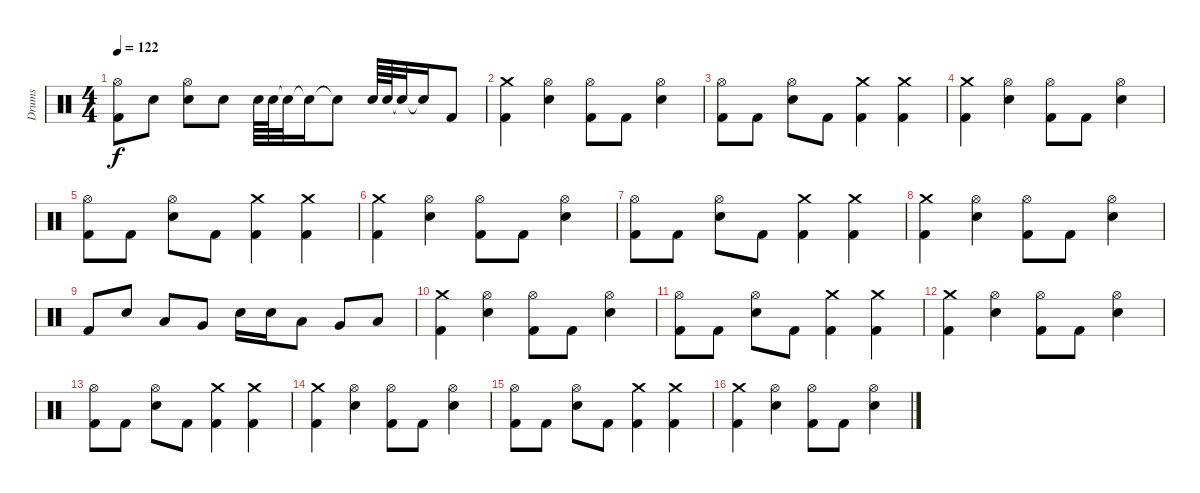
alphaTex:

\track ("Drums" "Drums") {instrument percussion}
\staff {score}
\articulation defaults
\ts (4 4)
\tempo 122
\clef neutral
\ks c
("Hi-Hat (open)" "Kick (hit) 2").8{dy f} "Electric Snare (hit)".8 ("Hi-Hat (open)" "Electric Snare (hit)").8 "Electric Snare (hit)".8 "Electric Snare (hit)".64 "Electric Snare (hit)".64 "Snare (hit)"{t}.32 "Snare (hit)"{t}.16 "Snare (hit)"{t}.8 "Electric Snare (hit)".64 "Electric Snare (hit)".64 "Snare (hit)"{t}.32 "Snare (hit)"{t}.16 "Kick (hit) 2".8 |
("Crash medium (hit)" "Kick (hit) 2").4 ("Hi-Hat (open)" "Electric Snare (hit)").4 ("Hi-Hat (open)" "Kick (hit) 2").8 "Kick (hit) 2".8 ("Hi-Hat (open)" "Electric Snare (hit)").4 |
("Hi-Hat (open)" "Kick (hit) 2").8 "Kick (hit) 2".8 ("Hi-Hat (open)" "Electric Snare (hit)").8 "Kick (hit) 2".8 ("Crash medium (hit)" "Kick (hit) 2").4 ("Crash medium (hit)" "Kick (hit) 2").4 |
("Crash medium (hit)" "Kick (hit) 2").4 ("Hi-Hat (open)" "Electric Snare (hit)").4 ("Hi-Hat (open)" "Kick (hit) 2").8 "Kick (hit) 2".8 ("Hi-Hat (open)" "Electric Snare (hit)").4 |
("Hi-Hat (open)" "Kick (hit) 2").8 "Kick (hit) 2".8 ("Hi-Hat (open)" "Electric Snare (hit)").8 "Kick (hit) 2".8 ("Crash medium (hit)" "Kick (hit) 2").4 ("Crash medium (hit)" "Kick (hit) 2").4 |
("Crash medium (hit)" "Kick (hit) 2").4 ("Hi-Hat (open)" "Electric Snare (hit)").4 ("Hi-Hat (open)" "Kick (hit) 2").8 "Kick (hit) 2".8 ("Hi-Hat (open)" "Electric Snare (hit)").4 |
("Hi-Hat (open)" "Kick (hit) 2").8 "Kick (hit) 2".8 ("Hi-Hat (open)" "Electric Snare (hit)").8 "Kick (hit) 2".8 ("Crash medium (hit)" "Kick (hit) 2").4 ("Crash medium (hit)" "Kick (hit) 2").4 |
("Crash medium (hit)" "Kick (hit) 2").4 ("Hi-Hat (open)" "Electric Snare (hit)").4 ("Hi-Hat (open)" "Kick (hit) 2").8 "Kick (hit) 2".8 ("Hi-Hat (open)" "Electric Snare (hit)").4 |
"Kick (hit) 2".8 "Electric Snare (hit)".8 "Low Tom (hit)".8 "Very Low Tom (hit)".8 "Electric Snare (hit)".16 "Electric Snare (hit)".16 "Low Tom (hit)".8 "Very Low Tom (hit)".8 "Low Floor Tom (hit)".8 |
("Crash medium (hit)" "Kick (hit) 2").4 ("Hi-Hat (open)" "Electric Snare (hit)").4 ("Hi-Hat (open)" "Kick (hit) 2").8 "Kick (hit) 2".8 ("Hi-Hat (open)" "Electric Snare (hit)").4 |
("Hi-Hat (open)" "Kick (hit) 2").8 "Kick (hit) 2".8 ("Hi-Hat (open)" "Electric Snare (hit)").8 "Kick (hit) 2".8 ("Crash medium (hit)" "Kick (hit) 2").4 ("Crash medium (hit)" "Kick (hit) 2").4 |
("Crash medium (hit)" "Kick (hit) 2").4 ("Hi-Hat (open)" "Electric Snare (hit)").4 ("Hi-Hat (open)" "Kick (hit) 2").8 "Kick (hit) 2".8 ("Hi-Hat (open)" "Electric Snare (hit)").4 |
("Hi-Hat (open)" "Kick (hit) 2").8 "Kick (hit) 2".8 ("Hi-Hat (open)" "Electric Snare (hit)").8 "Kick (hit) 2".8 ("Crash medium (hit)" "Kick (hit) 2").4 ("Crash medium (hit)" "Kick (hit) 2").4 |
("Crash medium (hit)" "Kick (hit) 2").4 ("Hi-Hat (open)" "Electric Snare (hit)").4 ("Hi-Hat (open)" "Kick (hit) 2").8 "Kick (hit) 2".8 ("Hi-Hat (open)" "Electric Snare (hit)").4 |
("Hi-Hat (open)" "Kick (hit) 2").8 "Kick (hit) 2".8 ("Hi-Hat (open)" "Electric Snare (hit)").8 "Kick (hit) 2".8 ("Crash medium (hit)" "Kick (hit) 2").4 ("Crash medium (hit)" "Kick (hit) 2").4 |
("Crash medium (hit)" "Kick (hit) 2").4 ("Hi-Hat (open)" "Electric Snare (hit)").4 ("Hi-Hat (open)" "Kick (hit) 2").8 "Kick (hit) 2".8 ("Hi-Hat (open)" "Electric Snare (hit)").4
